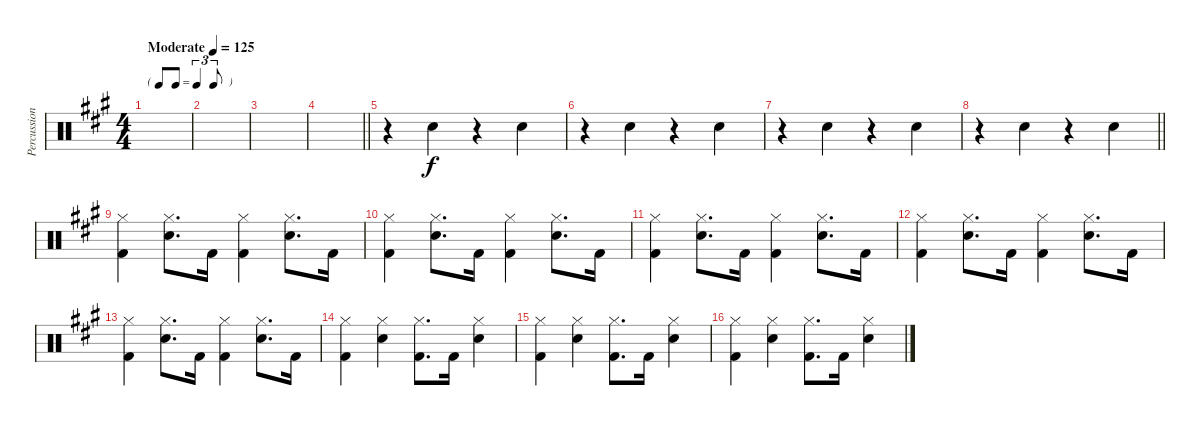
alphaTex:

\track ("Percussion" "Percussion") {instrument percussion}
\staff {score}
\articulation defaults
\ts (4 4)
\tf triplet8th
\tempo (125 "Moderate")
\clef neutral
\ks a
|
|
|
\barLineRight lightlight
|
r.4 "Snare (hit) 2".4 r.4 "Snare (hit) 2".4 |
r.4 "Snare (hit) 2".4 r.4 "Snare (hit) 2".4 |
r.4 "Snare (hit) 2".4 r.4 "Snare (hit) 2".4 |
\barLineRight lightlight
r.4 "Snare (hit) 2".4 r.4 "Snare (hit) 2".4 |
("Hi-Hat (closed)" "Kick (hit) 2").4 ("Hi-Hat (closed)" "Snare (hit) 2").8{d} "Kick (hit) 2".16 ("Hi-Hat (closed)" "Kick (hit) 2").4 ("Hi-Hat (closed)" "Snare (hit) 2").8{d} "Kick (hit) 2".16 |
("Hi-Hat (closed)" "Kick (hit) 2").4 ("Hi-Hat (closed)" "Snare (hit) 2").8{d} "Kick (hit) 2".16 ("Hi-Hat (closed)" "Kick (hit) 2").4 ("Hi-Hat (closed)" "Snare (hit) 2").8{d} "Kick (hit) 2".16 |
("Hi-Hat (closed)" "Kick (hit) 2").4 ("Hi-Hat (closed)" "Snare (hit) 2").8{d} "Kick (hit) 2".16 ("Hi-Hat (closed)" "Kick (hit) 2").4 ("Hi-Hat (closed)" "Snare (hit) 2").8{d} "Kick (hit) 2".16 |
("Hi-Hat (closed)" "Kick (hit) 2").4 ("Hi-Hat (closed)" "Snare (hit) 2").8{d} "Kick (hit) 2".16 ("Hi-Hat (closed)" "Kick (hit) 2").4 ("Hi-Hat (closed)" "Snare (hit) 2").8{d} "Kick (hit) 2".16 |
("Hi-Hat (closed)" "Kick (hit) 2").4 ("Hi-Hat (closed)" "Snare (hit) 2").8{d} "Kick (hit) 2".16 ("Hi-Hat (closed)" "Kick (hit) 2").4 ("Hi-Hat (closed)" "Snare (hit) 2").8{d} "Kick (hit) 2".16 |
("Hi-Hat (closed)" "Kick (hit) 2").4 ("Hi-Hat (closed)" "Snare (hit) 2").4 ("Hi-Hat (closed)" "Kick (hit) 2").8{d} "Kick (hit) 2".16 ("Hi-Hat (closed)" "Snare (hit) 2").4 |
("Hi-Hat (closed)" "Kick (hit) 2").4 ("Hi-Hat (closed)" "Snare (hit) 2").4 ("Hi-Hat (closed)" "Kick (hit) 2").8{d} "Kick (hit) 2".16 ("Hi-Hat (closed)" "Snare (hit) 2").4 |
("Hi-Hat (closed)" "Kick (hit) 2").4 ("Hi-Hat (closed)" "Snare (hit) 2").4 ("Hi-Hat (closed)" "Kick (hit) 2").8{d} "Kick (hit) 2".16 ("Hi-Hat (closed)" "Snare (hit) 2").4
